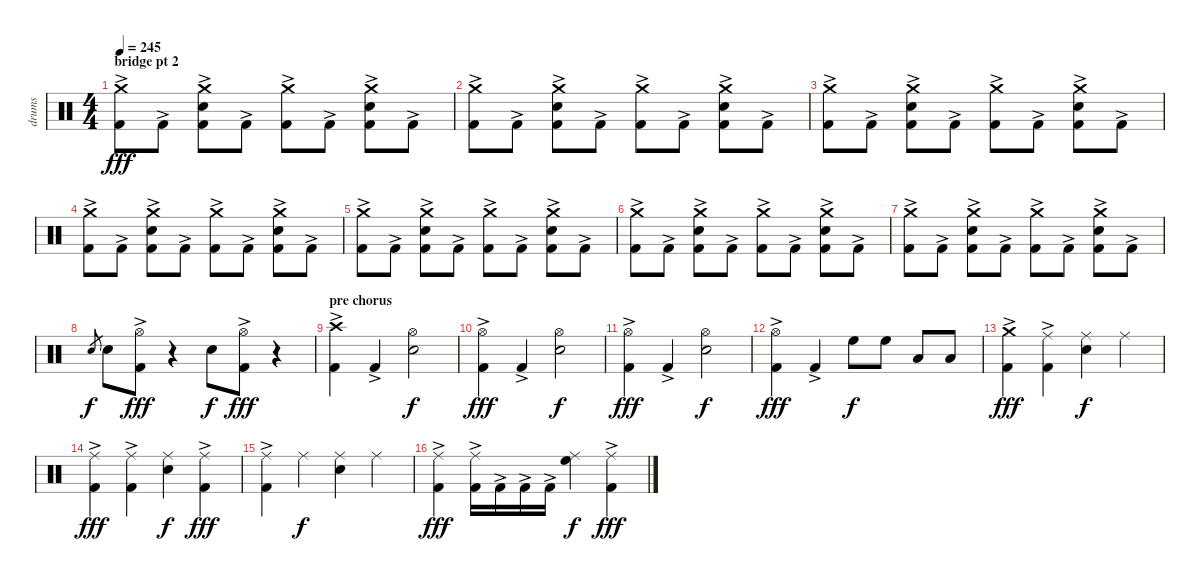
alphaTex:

\track ("drums" "drums") {instrument percussion}
\staff {score}
\articulation defaults
\ts (4 4)
\section ("" "bridge pt 2")
\tempo 245
\clef neutral
\ks c
("Crash medium (hit)" "Kick (hit) 2"{ac}).8{dy fff} "Kick (hit) 2"{ac}.8 ("Crash medium (hit)" "Electric Snare (hit)" "Kick (hit) 2"{ac}).8 "Kick (hit) 2"{ac}.8 ("Crash medium (hit)" "Kick (hit) 2"{ac}).8 "Kick (hit) 2"{ac}.8 ("Crash medium (hit)" "Electric Snare (hit)" "Kick (hit) 2"{ac}).8 "Kick (hit) 2"{ac}.8 |
("Crash medium (hit)" "Kick (hit) 2"{ac}).8 "Kick (hit) 2"{ac}.8 ("Crash medium (hit)" "Electric Snare (hit)" "Kick (hit) 2"{ac}).8 "Kick (hit) 2"{ac}.8 ("Crash medium (hit)" "Kick (hit) 2"{ac}).8 "Kick (hit) 2"{ac}.8 ("Crash medium (hit)" "Electric Snare (hit)" "Kick (hit) 2"{ac}).8 "Kick (hit) 2"{ac}.8 |
("Crash medium (hit)" "Kick (hit) 2"{ac}).8 "Kick (hit) 2"{ac}.8 ("Crash medium (hit)" "Electric Snare (hit)" "Kick (hit) 2"{ac}).8 "Kick (hit) 2"{ac}.8 ("Crash medium (hit)" "Kick (hit) 2"{ac}).8 "Kick (hit) 2"{ac}.8 ("Crash medium (hit)" "Electric Snare (hit)" "Kick (hit) 2"{ac}).8 "Kick (hit) 2"{ac}.8 |
("Crash medium (hit)" "Kick (hit) 2"{ac}).8 "Kick (hit) 2"{ac}.8 ("Crash medium (hit)" "Electric Snare (hit)" "Kick (hit) 2"{ac}).8 "Kick (hit) 2"{ac}.8 ("Crash medium (hit)" "Kick (hit) 2"{ac}).8 "Kick (hit) 2"{ac}.8 ("Crash medium (hit)" "Electric Snare (hit)" "Kick (hit) 2"{ac}).8 "Kick (hit) 2"{ac}.8 |
("Crash medium (hit)" "Kick (hit) 2"{ac}).8 "Kick (hit) 2"{ac}.8 ("Crash medium (hit)" "Electric Snare (hit)" "Kick (hit) 2"{ac}).8 "Kick (hit) 2"{ac}.8 ("Crash medium (hit)" "Kick (hit) 2"{ac}).8 "Kick (hit) 2"{ac}.8 ("Crash medium (hit)" "Electric Snare (hit)" "Kick (hit) 2"{ac}).8 "Kick (hit) 2"{ac}.8 |
("Crash medium (hit)" "Kick (hit) 2"{ac}).8 "Kick (hit) 2"{ac}.8 ("Crash medium (hit)" "Electric Snare (hit)" "Kick (hit) 2"{ac}).8 "Kick (hit) 2"{ac}.8 ("Crash medium (hit)" "Kick (hit) 2"{ac}).8 "Kick (hit) 2"{ac}.8 ("Crash medium (hit)" "Electric Snare (hit)" "Kick (hit) 2"{ac}).8 "Kick (hit) 2"{ac}.8 |
("Crash medium (hit)" "Kick (hit) 2"{ac}).8 "Kick (hit) 2"{ac}.8 ("Crash medium (hit)" "Electric Snare (hit)" "Kick (hit) 2"{ac}).8 "Kick (hit) 2"{ac}.8 ("Crash medium (hit)" "Kick (hit) 2"{ac}).8 "Kick (hit) 2"{ac}.8 ("Crash medium (hit)" "Electric Snare (hit)" "Kick (hit) 2"{ac}).8 "Kick (hit) 2"{ac}.8 |
"Electric Snare (hit)".8{gr dy f} "Electric Snare (hit)".8 ("Hi-Hat (open)" "Kick (hit) 2"{ac}).8{dy fff} r.4 "Electric Snare (hit)".8{dy f} ("Hi-Hat (open)" "Kick (hit) 2"{ac}).8{dy fff} r.4 |
\section ("" "pre chorus")
("Crash high (hit)" "Kick (hit) 2"{ac}).4 "Kick (hit) 2"{ac}.4 ("Hi-Hat (open)" "Electric Snare (hit)").2{dy f} |
("Hi-Hat (open)" "Kick (hit) 2"{ac}).4{dy fff} "Kick (hit) 2"{ac}.4 ("Hi-Hat (open)" "Electric Snare (hit)").2{dy f} |
("Hi-Hat (open)" "Kick (hit) 2"{ac}).4{dy fff} "Kick (hit) 2"{ac}.4 ("Hi-Hat (open)" "Electric Snare (hit)").2{dy f} |
("Hi-Hat (open)" "Kick (hit) 2"{ac}).4{dy fff} "Kick (hit) 2"{ac}.4 "High Floor Tom (hit)".8{dy f} "High Floor Tom (hit)".8 "Low Tom (hit)".8 "Low Tom (hit)".8 |
("Crash medium (hit)" "Kick (hit) 2"{ac}).4{dy fff} ("Ride (middle)" "Kick (hit) 2"{ac}).4 ("Ride (middle)" "Electric Snare (hit)").4{dy f} "Ride (middle)".4 |
("Ride (middle)" "Kick (hit) 2"{ac}).4{dy fff} ("Ride (middle)" "Kick (hit) 2"{ac}).4 ("Ride (middle)" "Electric Snare (hit)").4{dy f} ("Ride (middle)" "Kick (hit) 2"{ac}).4{dy fff} |
("Ride (middle)" "Kick (hit) 2"{ac}).4 "Ride (middle)".4{dy f} ("Ride (middle)" "Electric Snare (hit)").4 "Ride (middle)".4 |
("Ride (middle)" "Kick (hit) 2"{ac}).4{dy fff} ("Ride (middle)" "Kick (hit) 2"{ac}).16 "Kick (hit) 2"{ac}.16 "Kick (hit) 2"{ac}.16 "Kick (hit) 2"{ac}.16 ("Ride (middle)" "High Floor Tom (hit)").4{dy f} ("Ride (middle)" "Kick (hit) 2"{ac}).4{dy fff}
